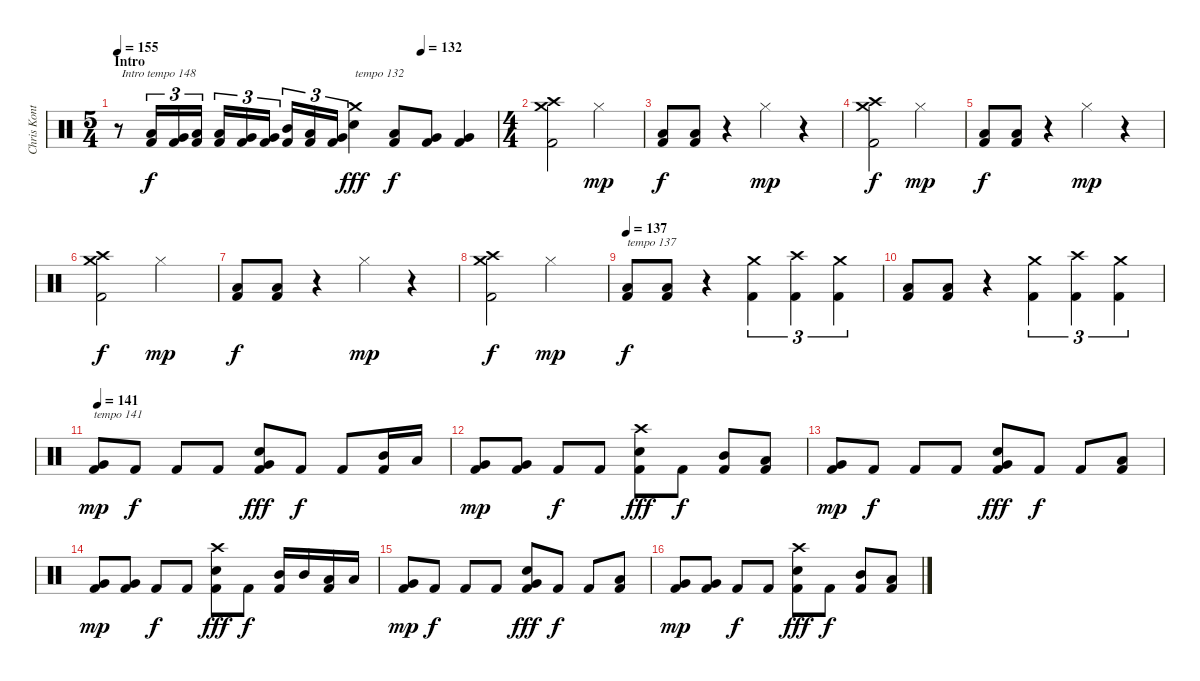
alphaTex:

\track ("Chris Kontos" "Chris Kont") {instrument percussion}
\staff {score}
\articulation defaults
\ts (5 4)
\section ("" "Intro")
\tempo 155
\tempo (132 0.8)
\tempo 148
\tempo 155
\clef neutral
\ks c
r.8{txt " Intro tempo 148" dy f} ("Low Tom (hit)" "Kick (hit) 2").16{tu (3 2)} ("Very Low Tom (hit)" "Kick (hit) 2").16{tu (3 2)} ("Low Tom (hit)" "Kick (hit) 2").16{tu (3 2)} ("Low Tom (hit)" "Kick (hit) 2").16{tu (3 2)} ("Very Low Tom (hit)" "Kick (hit) 2").16{tu (3 2)} ("Very Low Tom (hit)" "Kick (hit) 2").16{tu (3 2)} ("Mid Tom (hit)" "Kick (hit) 2").16{tu (3 2)} ("Low Tom (hit)" "Kick (hit) 2").16{tu (3 2)} ("Very Low Tom (hit)" "Kick (hit) 2").16{tu (3 2)} ("Crash medium (hit)" "Electric Snare (hit)").4{txt "tempo 132" dy fff} ("Low Tom (hit)" "Kick (hit) 2").8{dy f} ("Very Low Tom (hit)" "Kick (hit) 2").8 ("Very Low Tom (hit)" "Kick (hit) 2").4 |
\ts (4 4)
("Crash medium (hit)" "Crash high (hit)" "Kick (hit) 2").2 "Hi-Hat (closed)".2{dy mp} |
("Low Tom (hit)" "Kick (hit) 2").8{dy f} ("Low Tom (hit)" "Kick (hit) 2").8 r.4 "Hi-Hat (closed)".4{dy mp} r.4 |
("Crash medium (hit)" "Crash high (hit)" "Kick (hit) 2").2{dy f} "Hi-Hat (closed)".2{dy mp} |
("Low Tom (hit)" "Kick (hit) 2").8{dy f} ("Low Tom (hit)" "Kick (hit) 2").8 r.4 "Hi-Hat (closed)".4{dy mp} r.4 |
("Crash medium (hit)" "Crash high (hit)" "Kick (hit) 2").2{dy f} "Hi-Hat (closed)".2{dy mp} |
("Low Tom (hit)" "Kick (hit) 2").8{dy f} ("Low Tom (hit)" "Kick (hit) 2").8 r.4 "Hi-Hat (closed)".4{dy mp} r.4 |
("Crash medium (hit)" "Crash high (hit)" "Kick (hit) 2").2{dy f} "Hi-Hat (closed)".2{dy mp} |
\tempo 137
("Low Tom (hit)" "Kick (hit) 2").8{txt "tempo 137" dy f} ("Low Tom (hit)" "Kick (hit) 2").8 r.4 ("Crash medium (hit)" "Kick (hit) 2").4{tu (3 2)} ("Crash high (hit)" "Kick (hit) 2").4{tu (3 2)} ("Crash medium (hit)" "Kick (hit) 2").4{tu (3 2)} |
("Low Tom (hit)" "Kick (hit) 2").8 ("Low Tom (hit)" "Kick (hit) 2").8 r.4 ("Crash medium (hit)" "Kick (hit) 2").4{tu (3 2)} ("Crash high (hit)" "Kick (hit) 2").4{tu (3 2)} ("Crash medium (hit)" "Kick (hit) 2").4{tu (3 2)} |
\tempo 141
("Very Low Tom (hit)" "Kick (hit) 2").8{txt "tempo 141" dy mp} "Kick (hit) 2".8{dy f} "Kick (hit) 2".8 "Kick (hit) 2".8 ("Very Low Tom (hit)" "Electric Snare (hit)" "Kick (hit) 2").8{dy fff} "Kick (hit) 2".8{dy f} "Kick (hit) 2".8 ("Mid Tom (hit)" "Kick (hit) 2").16 "Low Tom (hit)".16 |
("Very Low Tom (hit)" "Kick (hit) 2").8{dy mp} ("Very Low Tom (hit)" "Kick (hit) 2").8 "Kick (hit) 2".8{dy f} "Kick (hit) 2".8 ("Crash high (hit)" "Electric Snare (hit)" "Kick (hit) 2").8{dy fff} "Kick (hit) 2".8{dy f} ("Mid Tom (hit)" "Kick (hit) 2").8 ("Low Tom (hit)" "Kick (hit) 2").8 |
("Very Low Tom (hit)" "Kick (hit) 2").8{dy mp} "Kick (hit) 2".8{dy f} "Kick (hit) 2".8 "Kick (hit) 2".8 ("Very Low Tom (hit)" "Electric Snare (hit)" "Kick (hit) 2").8{dy fff} "Kick (hit) 2".8{dy f} "Kick (hit) 2".8 ("Low Tom (hit)" "Kick (hit) 2").8 |
("Very Low Tom (hit)" "Kick (hit) 2").8{dy mp} ("Very Low Tom (hit)" "Kick (hit) 2").8 "Kick (hit) 2".8{dy f} "Kick (hit) 2".8 ("Crash high (hit)" "Electric Snare (hit)" "Kick (hit) 2").8{dy fff} "Kick (hit) 2".8{dy f} ("Mid Tom (hit)" "Kick (hit) 2").16 "Mid Tom (hit)".16 ("Low Tom (hit)" "Kick (hit) 2").16 "Low Tom (hit)".16 |
("Very Low Tom (hit)" "Kick (hit) 2").8{dy mp} "Kick (hit) 2".8{dy f} "Kick (hit) 2".8 "Kick (hit) 2".8 ("Very Low Tom (hit)" "Electric Snare (hit)" "Kick (hit) 2").8{dy fff} "Kick (hit) 2".8{dy f} "Kick (hit) 2".8 ("Low Tom (hit)" "Kick (hit) 2").8 |
("Very Low Tom (hit)" "Kick (hit) 2").8{dy mp} ("Very Low Tom (hit)" "Kick (hit) 2").8 "Kick (hit) 2".8{dy f} "Kick (hit) 2".8 ("Crash high (hit)" "Electric Snare (hit)" "Kick (hit) 2").8{dy fff} "Kick (hit) 2".8{dy f} ("Mid Tom (hit)" "Kick (hit) 2").8 ("Low Tom (hit)" "Kick (hit) 2").8
